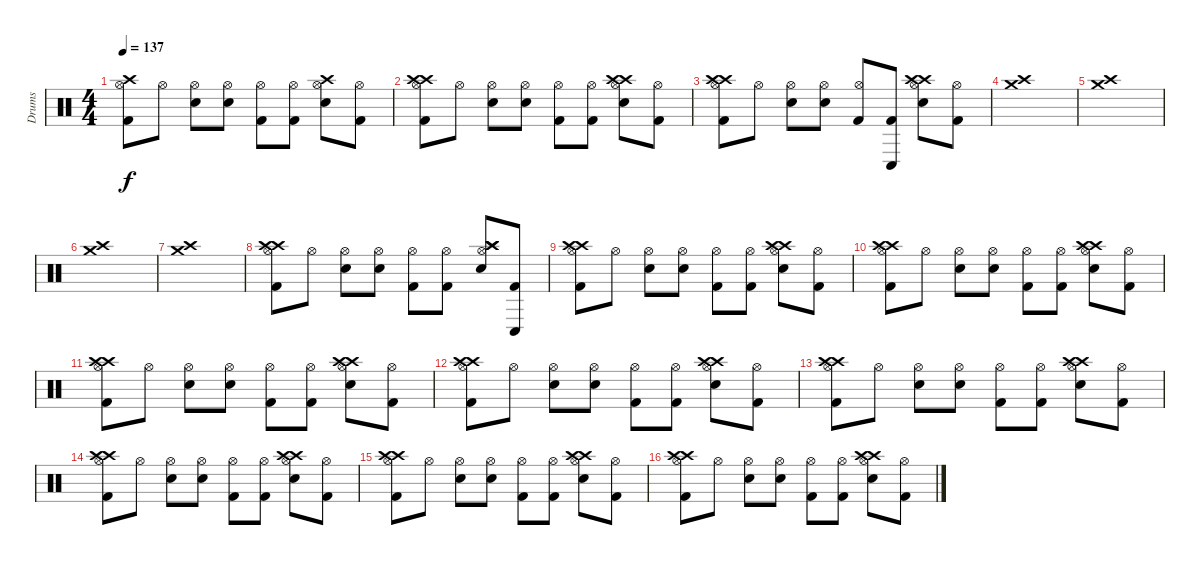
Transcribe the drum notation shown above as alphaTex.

\track ("Drums" "Drums") {instrument percussion}
\staff {score}
\articulation defaults
\ts (4 4)
\tempo 137
\clef neutral
\ks c
("Crash high (hit)" "Hi-Hat (open)" "Kick (hit) 2").8{dy f} "Hi-Hat (open)".8 ("Hi-Hat (open)" "Snare (hit) 2").8 ("Hi-Hat (open)" "Snare (hit) 2").8 ("Hi-Hat (open)" "Kick (hit) 2").8 ("Hi-Hat (open)" "Kick (hit) 2").8 ("Crash high (hit)" "Hi-Hat (open)" "Snare (hit) 2").8 ("Hi-Hat (open)" "Kick (hit) 2").8 |
("Crash high (hit)" "Crash high (hit)" "Hi-Hat (open)" "Kick (hit) 2").8 "Hi-Hat (open)".8 ("Hi-Hat (open)" "Snare (hit) 2").8 ("Hi-Hat (open)" "Snare (hit) 2").8 ("Hi-Hat (open)" "Kick (hit) 2").8 ("Hi-Hat (open)" "Kick (hit) 2").8 ("Crash high (hit)" "Crash high (hit)" "Hi-Hat (open)" "Snare (hit) 2").8 ("Hi-Hat (open)" "Kick (hit) 2").8 |
("Crash high (hit)" "Crash high (hit)" "Hi-Hat (open)" "Kick (hit) 2").8 "Hi-Hat (open)".8 ("Hi-Hat (open)" "Snare (hit) 2").8 ("Hi-Hat (open)" "Snare (hit) 2").8 ("Hi-Hat (open)" "Kick (hit) 2").8 ("Conga low (hit)" "Kick (hit) 2").8 ("Crash high (hit)" "Crash high (hit)" "Hi-Hat (open)" "Snare (hit) 2").8 ("Hi-Hat (open)" "Kick (hit) 2").8 |
("Crash high (hit)" "Crash medium (hit)").1 |
("Crash high (hit)" "Crash medium (hit)").1 |
("Crash high (hit)" "Crash medium (hit)").1 |
("Crash high (hit)" "Crash medium (hit)").1 |
("Crash high (hit)" "Crash high (hit)" "Hi-Hat (open)" "Kick (hit) 2").8 "Hi-Hat (open)".8 ("Hi-Hat (open)" "Snare (hit) 2").8 ("Hi-Hat (open)" "Snare (hit) 2").8 ("Hi-Hat (open)" "Kick (hit) 2").8 ("Hi-Hat (open)" "Kick (hit) 2").8 ("Crash high (hit)" "Crash high (hit)" "Hi-Hat (open)" "Snare (hit) 2").8 ("Conga low (hit)" "Kick (hit) 2").8 |
("Crash high (hit)" "Crash high (hit)" "Hi-Hat (open)" "Kick (hit) 2").8 "Hi-Hat (open)".8 ("Hi-Hat (open)" "Snare (hit) 2").8 ("Hi-Hat (open)" "Snare (hit) 2").8 ("Hi-Hat (open)" "Kick (hit) 2").8 ("Hi-Hat (open)" "Kick (hit) 2").8 ("Crash high (hit)" "Crash high (hit)" "Hi-Hat (open)" "Snare (hit) 2").8 ("Hi-Hat (open)" "Kick (hit) 2").8 |
("Crash high (hit)" "Crash high (hit)" "Hi-Hat (open)" "Kick (hit) 2").8 "Hi-Hat (open)".8 ("Hi-Hat (open)" "Snare (hit) 2").8 ("Hi-Hat (open)" "Snare (hit) 2").8 ("Hi-Hat (open)" "Kick (hit) 2").8 ("Hi-Hat (open)" "Kick (hit) 2").8 ("Crash high (hit)" "Crash high (hit)" "Hi-Hat (open)" "Snare (hit) 2").8 ("Hi-Hat (open)" "Kick (hit) 2").8 |
("Crash high (hit)" "Crash high (hit)" "Hi-Hat (open)" "Kick (hit) 2").8 "Hi-Hat (open)".8 ("Hi-Hat (open)" "Snare (hit) 2").8 ("Hi-Hat (open)" "Snare (hit) 2").8 ("Hi-Hat (open)" "Kick (hit) 2").8 ("Hi-Hat (open)" "Kick (hit) 2").8 ("Crash high (hit)" "Crash high (hit)" "Hi-Hat (open)" "Snare (hit) 2").8 ("Hi-Hat (open)" "Kick (hit) 2").8 |
("Crash high (hit)" "Crash high (hit)" "Hi-Hat (open)" "Kick (hit) 2").8 "Hi-Hat (open)".8 ("Hi-Hat (open)" "Snare (hit) 2").8 ("Hi-Hat (open)" "Snare (hit) 2").8 ("Hi-Hat (open)" "Kick (hit) 2").8 ("Hi-Hat (open)" "Kick (hit) 2").8 ("Crash high (hit)" "Crash high (hit)" "Hi-Hat (open)" "Snare (hit) 2").8 ("Hi-Hat (open)" "Kick (hit) 2").8 |
("Crash high (hit)" "Crash high (hit)" "Hi-Hat (open)" "Kick (hit) 2").8 "Hi-Hat (open)".8 ("Hi-Hat (open)" "Snare (hit) 2").8 ("Hi-Hat (open)" "Snare (hit) 2").8 ("Hi-Hat (open)" "Kick (hit) 2").8 ("Hi-Hat (open)" "Kick (hit) 2").8 ("Crash high (hit)" "Crash high (hit)" "Hi-Hat (open)" "Snare (hit) 2").8 ("Hi-Hat (open)" "Kick (hit) 2").8 |
("Crash high (hit)" "Crash high (hit)" "Hi-Hat (open)" "Kick (hit) 2").8 "Hi-Hat (open)".8 ("Hi-Hat (open)" "Snare (hit) 2").8 ("Hi-Hat (open)" "Snare (hit) 2").8 ("Hi-Hat (open)" "Kick (hit) 2").8 ("Hi-Hat (open)" "Kick (hit) 2").8 ("Crash high (hit)" "Crash high (hit)" "Hi-Hat (open)" "Snare (hit) 2").8 ("Hi-Hat (open)" "Kick (hit) 2").8 |
("Crash high (hit)" "Crash high (hit)" "Hi-Hat (open)" "Kick (hit) 2").8 "Hi-Hat (open)".8 ("Hi-Hat (open)" "Snare (hit) 2").8 ("Hi-Hat (open)" "Snare (hit) 2").8 ("Hi-Hat (open)" "Kick (hit) 2").8 ("Hi-Hat (open)" "Kick (hit) 2").8 ("Crash high (hit)" "Crash high (hit)" "Hi-Hat (open)" "Snare (hit) 2").8 ("Hi-Hat (open)" "Kick (hit) 2").8 |
("Crash high (hit)" "Crash high (hit)" "Hi-Hat (open)" "Kick (hit) 2").8 "Hi-Hat (open)".8 ("Hi-Hat (open)" "Snare (hit) 2").8 ("Hi-Hat (open)" "Snare (hit) 2").8 ("Hi-Hat (open)" "Kick (hit) 2").8 ("Hi-Hat (open)" "Kick (hit) 2").8 ("Crash high (hit)" "Crash high (hit)" "Hi-Hat (open)" "Snare (hit) 2").8 ("Hi-Hat (open)" "Kick (hit) 2").8
